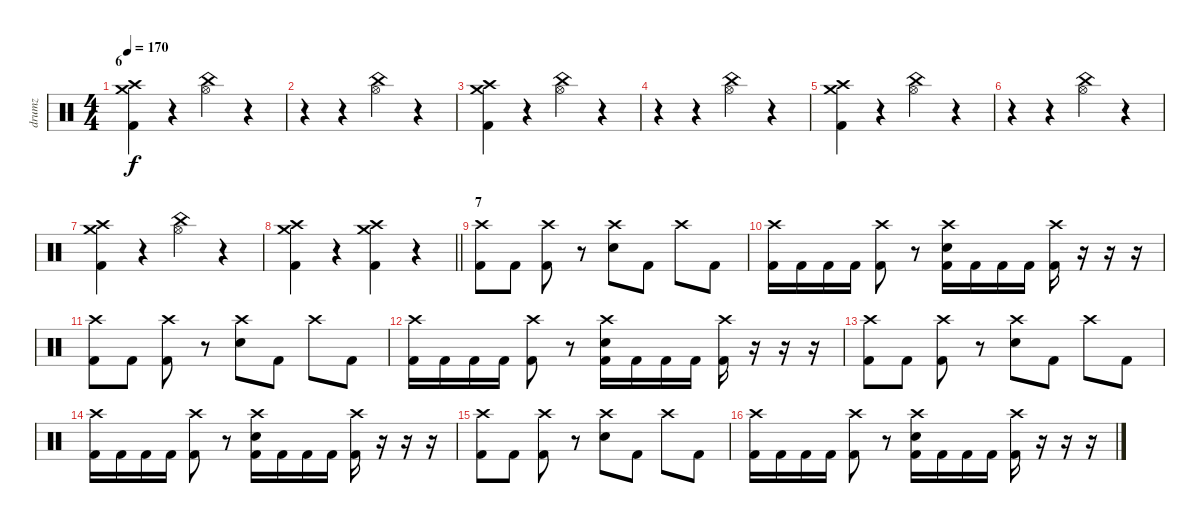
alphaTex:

\track ("drumz" "drumz") {instrument percussion}
\staff {score}
\articulation defaults
\ts (4 4)
\section ("" "6")
\tempo 170
\clef neutral
\ks c
("Crash high (hit)" "Crash medium (hit)" "Kick (hit) 2").4{dy f} r.4 ("China (hit)" "Hi-Hat (open)").4 r.4 |
r.4 r.4 ("China (hit)" "Hi-Hat (open)").4 r.4 |
("Crash high (hit)" "Crash medium (hit)" "Kick (hit) 2").4 r.4 ("China (hit)" "Hi-Hat (open)").4 r.4 |
r.4 r.4 ("China (hit)" "Hi-Hat (open)").4 r.4 |
("Crash high (hit)" "Crash medium (hit)" "Kick (hit) 2").4 r.4 ("China (hit)" "Hi-Hat (open)").4 r.4 |
r.4 r.4 ("China (hit)" "Hi-Hat (open)").4 r.4 |
("Crash high (hit)" "Crash medium (hit)" "Kick (hit) 2").4 r.4 ("China (hit)" "Hi-Hat (open)").4 r.4 |
\barLineRight lightlight
("Crash high (hit)" "Crash medium (hit)" "Kick (hit) 2").4 r.4 ("Crash medium (hit)" "Crash high (hit)" "Kick (hit) 2").4 r.4 |
\section ("" "7")
("Crash high (hit)" "Kick (hit) 2").8 "Kick (hit) 2".8 ("Crash high (hit)" "Kick (hit) 2").8 r.8 ("Crash high (hit)" "Electric Snare (hit)").8 "Kick (hit) 2".8 "Crash high (hit)".8 "Kick (hit) 2".8 |
("Crash high (hit)" "Kick (hit) 2").16 "Kick (hit) 2".16 "Kick (hit) 2".16 "Kick (hit) 2".16 ("Crash high (hit)" "Kick (hit) 2").8 r.8 ("Crash high (hit)" "Electric Snare (hit)" "Kick (hit) 2").16 "Kick (hit) 2".16 "Kick (hit) 2".16 "Kick (hit) 2".16 ("Crash high (hit)" "Kick (hit) 2").16 r.16 r.16 r.16 |
("Crash high (hit)" "Kick (hit) 2").8 "Kick (hit) 2".8 ("Crash high (hit)" "Kick (hit) 2").8 r.8 ("Crash high (hit)" "Electric Snare (hit)").8 "Kick (hit) 2".8 "Crash high (hit)".8 "Kick (hit) 2".8 |
("Crash high (hit)" "Kick (hit) 2").16 "Kick (hit) 2".16 "Kick (hit) 2".16 "Kick (hit) 2".16 ("Crash high (hit)" "Kick (hit) 2").8 r.8 ("Crash high (hit)" "Electric Snare (hit)" "Kick (hit) 2").16 "Kick (hit) 2".16 "Kick (hit) 2".16 "Kick (hit) 2".16 ("Crash high (hit)" "Kick (hit) 2").16 r.16 r.16 r.16 |
("Crash high (hit)" "Kick (hit) 2").8 "Kick (hit) 2".8 ("Crash high (hit)" "Kick (hit) 2").8 r.8 ("Crash high (hit)" "Electric Snare (hit)").8 "Kick (hit) 2".8 "Crash high (hit)".8 "Kick (hit) 2".8 |
("Crash high (hit)" "Kick (hit) 2").16 "Kick (hit) 2".16 "Kick (hit) 2".16 "Kick (hit) 2".16 ("Crash high (hit)" "Kick (hit) 2").8 r.8 ("Crash high (hit)" "Electric Snare (hit)" "Kick (hit) 2").16 "Kick (hit) 2".16 "Kick (hit) 2".16 "Kick (hit) 2".16 ("Crash high (hit)" "Kick (hit) 2").16 r.16 r.16 r.16 |
("Crash high (hit)" "Kick (hit) 2").8 "Kick (hit) 2".8 ("Crash high (hit)" "Kick (hit) 2").8 r.8 ("Crash high (hit)" "Electric Snare (hit)").8 "Kick (hit) 2".8 "Crash high (hit)".8 "Kick (hit) 2".8 |
("Crash high (hit)" "Kick (hit) 2").16 "Kick (hit) 2".16 "Kick (hit) 2".16 "Kick (hit) 2".16 ("Crash high (hit)" "Kick (hit) 2").8 r.8 ("Crash high (hit)" "Electric Snare (hit)" "Kick (hit) 2").16 "Kick (hit) 2".16 "Kick (hit) 2".16 "Kick (hit) 2".16 ("Crash high (hit)" "Kick (hit) 2").16 r.16 r.16 r.16
